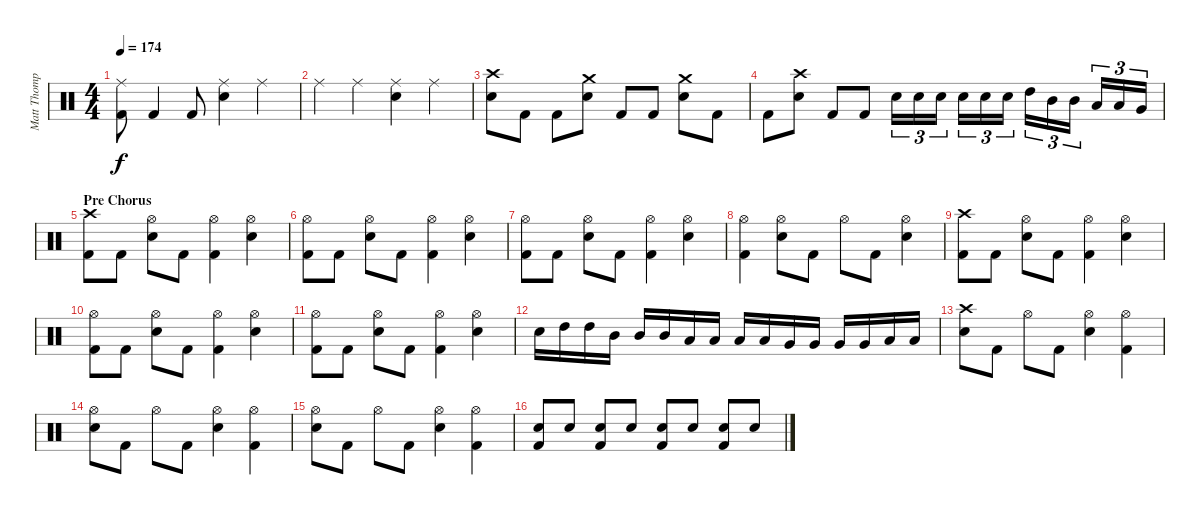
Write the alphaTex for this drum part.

\track ("Matt Thompson" "Matt Thomp") {instrument percussion}
\staff {score}
\articulation defaults
\ts (4 4)
\tempo 174
\clef neutral
\ks c
("Ride (middle)" "Kick (hit) 2").8{dy f} "Kick (hit) 2".4 "Kick (hit) 2".8 ("Ride (middle)" "Snare (hit) 2").4 "Ride (middle)".4 |
"Ride (middle)".4 "Ride (middle)".4 ("Ride (middle)" "Snare (hit) 2").4 "Ride (middle)".4 |
("Crash high (hit)" "Snare (hit) 2").8 "Kick (hit) 2".8 "Kick (hit) 2".8 ("Crash medium (hit)" "Snare (hit) 2").8 "Kick (hit) 2".8 "Kick (hit) 2".8 ("Crash medium (hit)" "Snare (hit) 2").8 "Kick (hit) 2".8 |
"Kick (hit) 2".8 ("Crash high (hit)" "Snare (hit) 2").8 "Kick (hit) 2".8 "Kick (hit) 2".8 "Snare (hit) 2".16{tu (3 2)} "Snare (hit) 2".16{tu (3 2)} "Snare (hit) 2".16{tu (3 2)} "Snare (hit) 2".16{tu (3 2)} "Snare (hit) 2".16{tu (3 2)} "Snare (hit) 2".16{tu (3 2)} "High Tom (hit)".16{tu (3 2)} "Mid Tom (hit)".16{tu (3 2)} "Mid Tom (hit)".16{tu (3 2)} "Low Tom (hit)".16{tu (3 2)} "Low Tom (hit)".16{tu (3 2)} "Very Low Tom (hit)".16{tu (3 2)} |
\section ("" "Pre Chorus")
("Crash high (hit)" "Kick (hit) 2").8 "Kick (hit) 2".8 ("Hi-Hat (open)" "Snare (hit) 2").8 "Kick (hit) 2".8 ("Hi-Hat (open)" "Kick (hit) 2").4 ("Hi-Hat (open)" "Snare (hit) 2").4 |
("Hi-Hat (open)" "Kick (hit) 2").8 "Kick (hit) 2".8 ("Hi-Hat (open)" "Snare (hit) 2").8 "Kick (hit) 2".8 ("Hi-Hat (open)" "Kick (hit) 2").4 ("Hi-Hat (open)" "Snare (hit) 2").4 |
("Hi-Hat (open)" "Kick (hit) 2").8 "Kick (hit) 2".8 ("Hi-Hat (open)" "Snare (hit) 2").8 "Kick (hit) 2".8 ("Hi-Hat (open)" "Kick (hit) 2").4 ("Hi-Hat (open)" "Snare (hit) 2").4 |
("Hi-Hat (open)" "Kick (hit) 2").4 ("Hi-Hat (open)" "Snare (hit) 2").8 "Kick (hit) 2".8 "Hi-Hat (open)".8 "Kick (hit) 2".8 ("Hi-Hat (open)" "Snare (hit) 2").4 |
("Crash high (hit)" "Kick (hit) 2").8 "Kick (hit) 2".8 ("Hi-Hat (open)" "Snare (hit) 2").8 "Kick (hit) 2".8 ("Hi-Hat (open)" "Kick (hit) 2").4 ("Hi-Hat (open)" "Snare (hit) 2").4 |
("Hi-Hat (open)" "Kick (hit) 2").8 "Kick (hit) 2".8 ("Hi-Hat (open)" "Snare (hit) 2").8 "Kick (hit) 2".8 ("Hi-Hat (open)" "Kick (hit) 2").4 ("Hi-Hat (open)" "Snare (hit) 2").4 |
("Hi-Hat (open)" "Kick (hit) 2").8 "Kick (hit) 2".8 ("Hi-Hat (open)" "Snare (hit) 2").8 "Kick (hit) 2".8 ("Hi-Hat (open)" "Kick (hit) 2").4 ("Hi-Hat (open)" "Snare (hit) 2").4 |
"Snare (hit) 2".16 "High Tom (hit)".16 "High Tom (hit)".16 "Mid Tom (hit)".16 "Mid Tom (hit)".16 "Mid Tom (hit)".16 "Low Tom (hit)".16 "Low Tom (hit)".16 "Low Tom (hit)".16 "Low Tom (hit)".16 "Very Low Tom (hit)".16 "Very Low Tom (hit)".16 "Very Low Tom (hit)".16 "Very Low Tom (hit)".16 "Low Floor Tom (hit)".16 "Low Floor Tom (hit)".16 |
("Crash high (hit)" "Snare (hit) 2").8 "Kick (hit) 2".8 "Hi-Hat (open)".8 "Kick (hit) 2".8 ("Hi-Hat (open)" "Snare (hit) 2").4 ("Hi-Hat (open)" "Kick (hit) 2").4 |
("Hi-Hat (open)" "Snare (hit) 2").8 "Kick (hit) 2".8 "Hi-Hat (open)".8 "Kick (hit) 2".8 ("Hi-Hat (open)" "Snare (hit) 2").4 ("Hi-Hat (open)" "Kick (hit) 2").4 |
("Hi-Hat (open)" "Snare (hit) 2").8 "Kick (hit) 2".8 "Hi-Hat (open)".8 "Kick (hit) 2".8 ("Hi-Hat (open)" "Snare (hit) 2").4 ("Hi-Hat (open)" "Kick (hit) 2").4 |
("Snare (hit) 2" "Kick (hit) 2").8 "Snare (hit) 2".8 ("Snare (hit) 2" "Kick (hit) 2").8 "Snare (hit) 2".8 ("Snare (hit) 2" "Kick (hit) 2").8 "Snare (hit) 2".8 ("Snare (hit) 2" "Kick (hit) 2").8 "Snare (hit) 2".8
